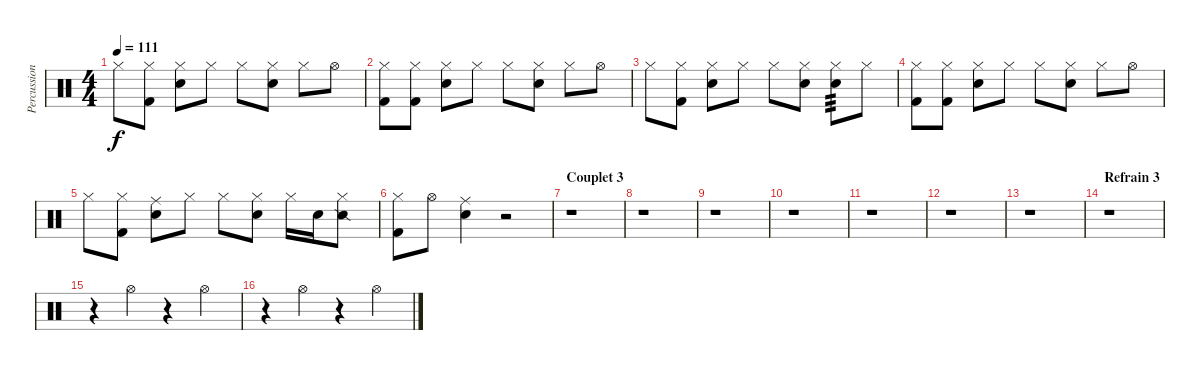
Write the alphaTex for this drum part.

\track ("Percussions" "Percussion") {instrument percussion}
\staff {score}
\articulation defaults
\ts (4 4)
\tempo 111
\clef neutral
\ks c "Hi-Hat (closed)".8{dy f}
("Hi-Hat (closed)" "Kick (hit) 2").8 ("Hi-Hat (closed)" "Snare (hit) 2").8 "Hi-Hat (closed)".8 "Hi-Hat (closed)".8 ("Hi-Hat (closed)" "Snare (hit) 2").8 "Hi-Hat (closed)".8 "Hi-Hat (open)".8 |
("Hi-Hat (closed)" "Kick (hit) 2").8 ("Hi-Hat (closed)" "Kick (hit) 2").8 ("Hi-Hat (closed)" "Snare (hit) 2").8 "Hi-Hat (closed)".8 "Hi-Hat (closed)".8 ("Hi-Hat (closed)" "Snare (hit) 2").8 "Hi-Hat (closed)".8 "Hi-Hat (open)".8 |
"Hi-Hat (closed)".8 ("Hi-Hat (closed)" "Kick (hit) 2").8 ("Hi-Hat (closed)" "Snare (hit) 2").8 "Hi-Hat (closed)".8 "Hi-Hat (closed)".8 ("Hi-Hat (closed)" "Snare (hit) 2").8 ("Hi-Hat (closed)" "Snare (hit) 2").8{tp 3} "Hi-Hat (closed)".8 |
("Hi-Hat (closed)" "Kick (hit) 2").8 ("Hi-Hat (closed)" "Kick (hit) 2").8 ("Hi-Hat (closed)" "Snare (hit) 2").8 "Hi-Hat (closed)".8 "Hi-Hat (closed)".8 ("Hi-Hat (closed)" "Snare (hit) 2").8 "Hi-Hat (closed)".8 "Hi-Hat (open)".8 |
"Hi-Hat (closed)".8 ("Hi-Hat (closed)" "Kick (hit) 2").8 ("Ride (middle)" "Snare (hit) 2").8 "Hi-Hat (closed)".8 "Hi-Hat (closed)".8 ("Hi-Hat (closed)" "Snare (hit) 2").8 "Hi-Hat (closed)".16 "Snare (hit) 2".16 ("Hi-Hat (closed)" "Snare (side stick) 2").8 |
("Hi-Hat (closed)" "Kick (hit) 2").8 "Hi-Hat (open)".8 ("Ride (middle)" "Snare (hit) 2").4 r.2 |
\section ("" "Couplet 3")
r.1 |
r.1 |
r.1 |
r.1 |
r.1 |
r.1 |
r.1 |
\section ("" "Refrain 3")
r.1 |
r.4 "Hi-Hat (open)".4 r.4 "Hi-Hat (open)".4 |
r.4 "Hi-Hat (open)".4 r.4 "Hi-Hat (open)".4
